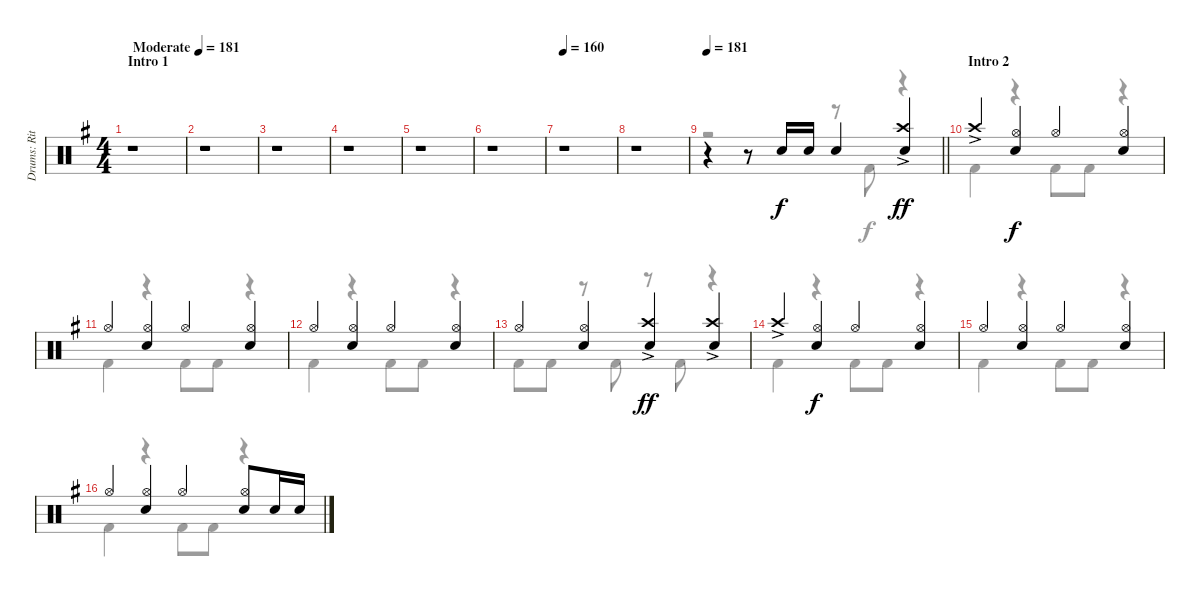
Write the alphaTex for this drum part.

\track ("Drums: Ritsu Tianaka" "Drums: Rit") {instrument percussion}
\staff {score}
\articulation defaults
\voice
\ts (4 4)
\section ("" "Intro 1")
\tempo (181 "Moderate")
\clef neutral
\ks g
r.1{dy f} |
r.1 |
r.1 |
r.1 |
r.1 |
r.1 |
\tempo 160
r.1 |
r.1 |
\tempo 181
\barLineRight lightlight
r.4 r.8 "Snare (hit) 2".16 "Snare (hit) 2".16 "Snare (hit) 2".4 ("Crash high (hit)"{ac} "Snare (hit) 2").4{dy ff} |
\section ("" "Intro 2")
"Crash high (hit)"{ac}.4 ("Hi-Hat (open)" "Snare (hit) 2").4{dy f} "Hi-Hat (open)".4 ("Hi-Hat (open)" "Snare (hit) 2").4 |
"Hi-Hat (open)".4 ("Hi-Hat (open)" "Snare (hit) 2").4 "Hi-Hat (open)".4 ("Hi-Hat (open)" "Snare (hit) 2").4 |
"Hi-Hat (open)".4 ("Hi-Hat (open)" "Snare (hit) 2").4 "Hi-Hat (open)".4 ("Hi-Hat (open)" "Snare (hit) 2").4 |
"Hi-Hat (open)".4 ("Hi-Hat (open)" "Snare (hit) 2").4 ("Crash high (hit)"{ac} "Snare (hit) 2").4{dy ff} ("Crash high (hit)"{ac} "Snare (hit) 2").4 |
"Crash high (hit)"{ac}.4 ("Hi-Hat (open)" "Snare (hit) 2").4{dy f} "Hi-Hat (open)".4 ("Hi-Hat (open)" "Snare (hit) 2").4 |
"Hi-Hat (open)".4 ("Hi-Hat (open)" "Snare (hit) 2").4 "Hi-Hat (open)".4 ("Hi-Hat (open)" "Snare (hit) 2").4 |
"Hi-Hat (open)".4 ("Hi-Hat (open)" "Snare (hit) 2").4 "Hi-Hat (open)".4 ("Hi-Hat (open)" "Snare (hit) 2").8 "Snare (hit) 2".16 "Snare (hit) 2".16
\voice
\clef neutral
\ottava regular
\simile none
\ks g
|
|
|
|
|
|
|
|
\barLineRight lightlight
r.2 r.8 "Kick (hit) 2".8 r.4 |
"Kick (hit) 2".4 r.4 "Kick (hit) 2".8 "Kick (hit) 2".8 r.4 |
"Kick (hit) 2".4 r.4 "Kick (hit) 2".8 "Kick (hit) 2".8 r.4 |
"Kick (hit) 2".4 r.4 "Kick (hit) 2".8 "Kick (hit) 2".8 r.4 |
"Kick (hit) 2".8 "Kick (hit) 2".8 r.8 "Kick (hit) 2".8 r.8 "Kick (hit) 2".8 r.4 |
"Kick (hit) 2".4 r.4 "Kick (hit) 2".8 "Kick (hit) 2".8 r.4 |
"Kick (hit) 2".4 r.4 "Kick (hit) 2".8 "Kick (hit) 2".8 r.4 |
"Kick (hit) 2".4 r.4 "Kick (hit) 2".8 "Kick (hit) 2".8 r.4
